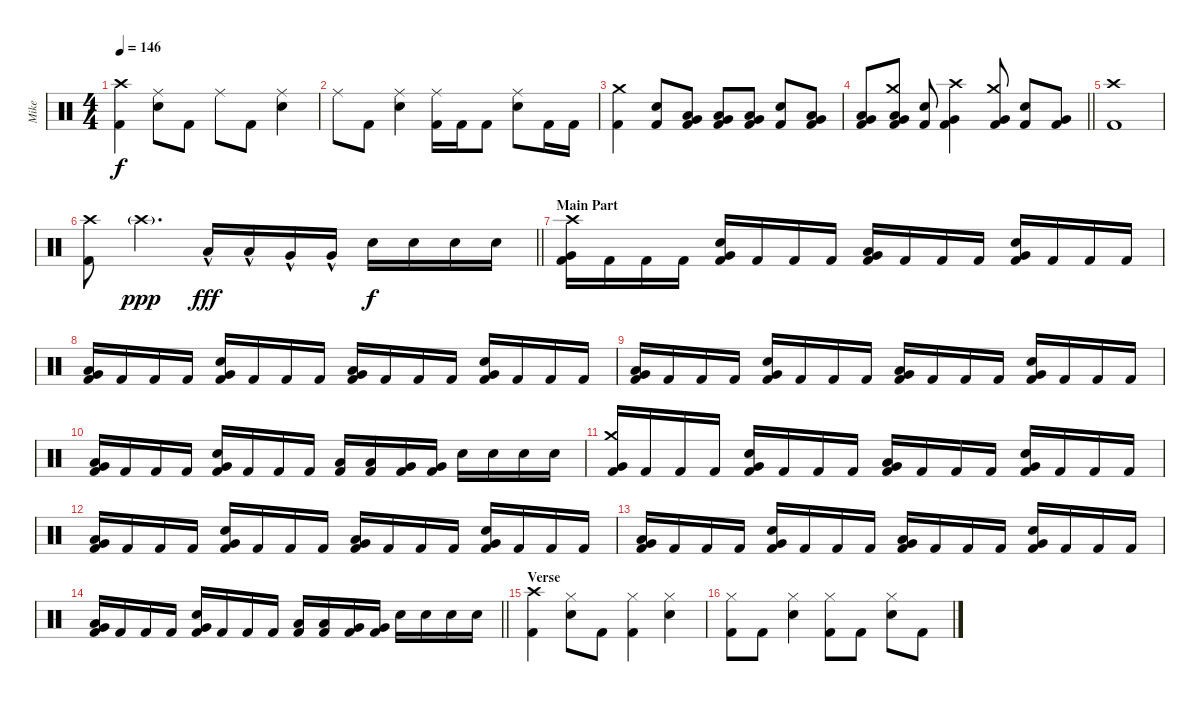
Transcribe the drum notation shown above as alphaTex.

\track ("Mike" "Mike") {instrument percussion}
\staff {score}
\articulation defaults
\ts (4 4)
\tempo 146
\clef neutral
\ks c
("Crash high (hit)" "Kick (hit) 2").4{dy f} ("Snare (hit) 2" "Ride (middle)").8 "Kick (hit) 2".8 "Ride (middle)".8 "Kick (hit) 2".8 ("Snare (hit) 2" "Ride (middle)").4 |
"Ride (middle)".8 "Kick (hit) 2".8 ("Snare (hit) 2" "Ride (middle)").4 ("Ride (middle)" "Kick (hit) 2").16 "Kick (hit) 2".16 "Kick (hit) 2".8 ("Snare (hit) 2" "Ride (middle)").8 "Kick (hit) 2".16 "Kick (hit) 2".16 |
("Crash medium (hit)" "Kick (hit) 2").4 ("Snare (hit) 2" "Kick (hit) 2").8 ("Very Low Tom (hit)" "Low Floor Tom (hit)" "Kick (hit) 2").8 ("Low Tom (hit)" "Very Low Tom (hit)" "Kick (hit) 2").8 ("Very Low Tom (hit)" "Low Floor Tom (hit)" "Kick (hit) 2").8 ("Snare (hit) 2" "Kick (hit) 2").8 ("Very Low Tom (hit)" "Low Floor Tom (hit)" "Kick (hit) 2").8 |
\barLineRight lightlight
("Low Tom (hit)" "Very Low Tom (hit)" "Kick (hit) 2").8 ("Crash medium (hit)" "Very Low Tom (hit)" "Low Floor Tom (hit)" "Kick (hit) 2").8 ("Snare (hit) 2" "Kick (hit) 2").8 ("Crash high (hit)" "Very Low Tom (hit)" "Kick (hit) 2").4 ("Crash medium (hit)" "Very Low Tom (hit)" "Kick (hit) 2").8 ("Snare (hit) 2" "Kick (hit) 2").8 ("Very Low Tom (hit)" "Kick (hit) 2").8 |
("Crash high (hit)" "Kick (hit) 2").1 |
\barLineRight lightlight
("Crash high (hit)" "Kick (hit) 2").8 "Crash high (hit)"{g}.4{d dy ppp} "Low Tom (hit)"{hac}.16{dy fff} "Low Tom (hit)"{hac}.16 "Very Low Tom (hit)"{hac}.16 "Very Low Tom (hit)"{hac}.16 "Snare (hit) 2".16{dy f} "Snare (hit) 2".16 "Snare (hit) 2".16 "Snare (hit) 2".16 |
\section ("" "Main Part")
("Crash high (hit)" "Very Low Tom (hit)" "Kick (hit) 2").16 "Kick (hit) 2".16 "Kick (hit) 2".16 "Kick (hit) 2".16 ("Snare (hit) 2" "Very Low Tom (hit)" "Kick (hit) 2").16 "Kick (hit) 2".16 "Kick (hit) 2".16 "Kick (hit) 2".16 ("Low Tom (hit)" "Very Low Tom (hit)" "Kick (hit) 2").16 "Kick (hit) 2".16 "Kick (hit) 2".16 "Kick (hit) 2".16 ("Snare (hit) 2" "Very Low Tom (hit)" "Kick (hit) 2").16 "Kick (hit) 2".16 "Kick (hit) 2".16 "Kick (hit) 2".16 |
("Low Tom (hit)" "Very Low Tom (hit)" "Kick (hit) 2").16 "Kick (hit) 2".16 "Kick (hit) 2".16 "Kick (hit) 2".16 ("Snare (hit) 2" "Very Low Tom (hit)" "Kick (hit) 2").16 "Kick (hit) 2".16 "Kick (hit) 2".16 "Kick (hit) 2".16 ("Low Tom (hit)" "Very Low Tom (hit)" "Kick (hit) 2").16 "Kick (hit) 2".16 "Kick (hit) 2".16 "Kick (hit) 2".16 ("Snare (hit) 2" "Very Low Tom (hit)" "Kick (hit) 2").16 "Kick (hit) 2".16 "Kick (hit) 2".16 "Kick (hit) 2".16 |
("Low Tom (hit)" "Very Low Tom (hit)" "Kick (hit) 2").16 "Kick (hit) 2".16 "Kick (hit) 2".16 "Kick (hit) 2".16 ("Snare (hit) 2" "Very Low Tom (hit)" "Kick (hit) 2").16 "Kick (hit) 2".16 "Kick (hit) 2".16 "Kick (hit) 2".16 ("Low Tom (hit)" "Very Low Tom (hit)" "Kick (hit) 2").16 "Kick (hit) 2".16 "Kick (hit) 2".16 "Kick (hit) 2".16 ("Snare (hit) 2" "Very Low Tom (hit)" "Kick (hit) 2").16 "Kick (hit) 2".16 "Kick (hit) 2".16 "Kick (hit) 2".16 |
("Low Tom (hit)" "Very Low Tom (hit)" "Kick (hit) 2").16 "Kick (hit) 2".16 "Kick (hit) 2".16 "Kick (hit) 2".16 ("Snare (hit) 2" "Very Low Tom (hit)" "Kick (hit) 2").16 "Kick (hit) 2".16 "Kick (hit) 2".16 "Kick (hit) 2".16 ("Low Tom (hit)" "Kick (hit) 2").16 ("Low Tom (hit)" "Kick (hit) 2").16 ("Very Low Tom (hit)" "Kick (hit) 2").16 ("Very Low Tom (hit)" "Kick (hit) 2").16 "Snare (hit) 2".16 "Snare (hit) 2".16 "Snare (hit) 2".16 "Snare (hit) 2".16 |
("Crash medium (hit)" "Very Low Tom (hit)" "Kick (hit) 2").16 "Kick (hit) 2".16 "Kick (hit) 2".16 "Kick (hit) 2".16 ("Snare (hit) 2" "Very Low Tom (hit)" "Kick (hit) 2").16 "Kick (hit) 2".16 "Kick (hit) 2".16 "Kick (hit) 2".16 ("Low Tom (hit)" "Very Low Tom (hit)" "Kick (hit) 2").16 "Kick (hit) 2".16 "Kick (hit) 2".16 "Kick (hit) 2".16 ("Snare (hit) 2" "Very Low Tom (hit)" "Kick (hit) 2").16 "Kick (hit) 2".16 "Kick (hit) 2".16 "Kick (hit) 2".16 |
("Low Tom (hit)" "Very Low Tom (hit)" "Kick (hit) 2").16 "Kick (hit) 2".16 "Kick (hit) 2".16 "Kick (hit) 2".16 ("Snare (hit) 2" "Very Low Tom (hit)" "Kick (hit) 2").16 "Kick (hit) 2".16 "Kick (hit) 2".16 "Kick (hit) 2".16 ("Low Tom (hit)" "Very Low Tom (hit)" "Kick (hit) 2").16 "Kick (hit) 2".16 "Kick (hit) 2".16 "Kick (hit) 2".16 ("Snare (hit) 2" "Very Low Tom (hit)" "Kick (hit) 2").16 "Kick (hit) 2".16 "Kick (hit) 2".16 "Kick (hit) 2".16 |
("Low Tom (hit)" "Very Low Tom (hit)" "Kick (hit) 2").16 "Kick (hit) 2".16 "Kick (hit) 2".16 "Kick (hit) 2".16 ("Snare (hit) 2" "Very Low Tom (hit)" "Kick (hit) 2").16 "Kick (hit) 2".16 "Kick (hit) 2".16 "Kick (hit) 2".16 ("Low Tom (hit)" "Very Low Tom (hit)" "Kick (hit) 2").16 "Kick (hit) 2".16 "Kick (hit) 2".16 "Kick (hit) 2".16 ("Snare (hit) 2" "Very Low Tom (hit)" "Kick (hit) 2").16 "Kick (hit) 2".16 "Kick (hit) 2".16 "Kick (hit) 2".16 |
\barLineRight lightlight
("Low Tom (hit)" "Very Low Tom (hit)" "Kick (hit) 2").16 "Kick (hit) 2".16 "Kick (hit) 2".16 "Kick (hit) 2".16 ("Snare (hit) 2" "Very Low Tom (hit)" "Kick (hit) 2").16 "Kick (hit) 2".16 "Kick (hit) 2".16 "Kick (hit) 2".16 ("Low Tom (hit)" "Kick (hit) 2").16 ("Low Tom (hit)" "Kick (hit) 2").16 ("Very Low Tom (hit)" "Kick (hit) 2").16 ("Very Low Tom (hit)" "Kick (hit) 2").16 "Snare (hit) 2".16 "Snare (hit) 2".16 "Snare (hit) 2".16 "Snare (hit) 2".16 |
\section ("" "Verse")
("Crash high (hit)" "Kick (hit) 2").4 ("Snare (hit) 2" "Hi-Hat (closed)").8 "Kick (hit) 2".8 ("Hi-Hat (closed)" "Kick (hit) 2").4 ("Snare (hit) 2" "Hi-Hat (closed)").4 |
("Hi-Hat (closed)" "Kick (hit) 2").8 "Kick (hit) 2".8 ("Snare (hit) 2" "Hi-Hat (closed)").4 ("Hi-Hat (closed)" "Kick (hit) 2").8 "Kick (hit) 2".8 ("Snare (hit) 2" "Hi-Hat (closed)").8 "Kick (hit) 2".8
